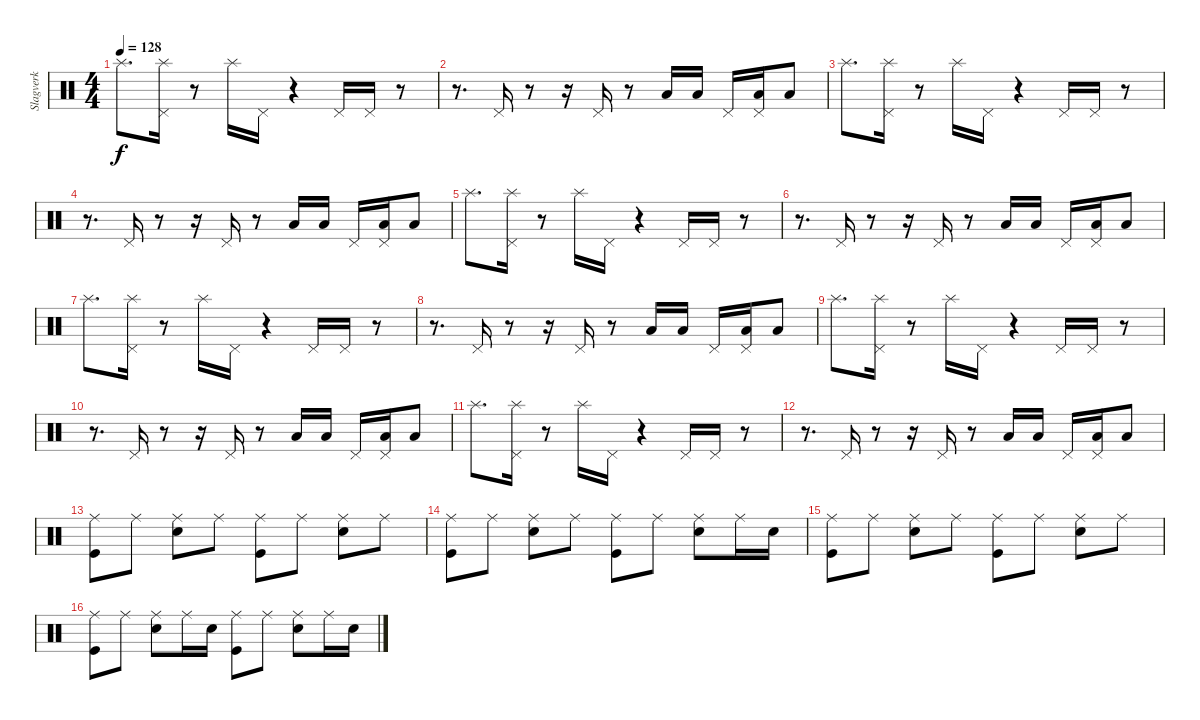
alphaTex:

\track ("Slagverk" "Slagverk") {instrument percussion}
\staff {score}
\articulation defaults
\ts (4 4)
\tempo 128
\clef neutral
\ks c "Splash (hit)".8{d dy f}
("Pedal Hi-Hat (hit)" "Splash (hit)").16 r.8 "Splash (hit)".16 "Pedal Hi-Hat (hit)".16 r.4 "Pedal Hi-Hat (hit)".16 "Pedal Hi-Hat (hit)".16 r.8 |
r.8{d} "Pedal Hi-Hat (hit)".16 r.8 r.16 "Pedal Hi-Hat (hit)".16 r.8 "Low Floor Tom (hit)".16 "Low Floor Tom (hit)".16 "Pedal Hi-Hat (hit)".16 ("Low Floor Tom (hit)" "Pedal Hi-Hat (hit)").16 "Low Floor Tom (hit)".8 |
"Splash (hit)".8{d} ("Pedal Hi-Hat (hit)" "Splash (hit)").16 r.8 "Splash (hit)".16 "Pedal Hi-Hat (hit)".16 r.4 "Pedal Hi-Hat (hit)".16 "Pedal Hi-Hat (hit)".16 r.8 |
r.8{d} "Pedal Hi-Hat (hit)".16 r.8 r.16 "Pedal Hi-Hat (hit)".16 r.8 "Low Floor Tom (hit)".16 "Low Floor Tom (hit)".16 "Pedal Hi-Hat (hit)".16 ("Low Floor Tom (hit)" "Pedal Hi-Hat (hit)").16 "Low Floor Tom (hit)".8 |
"Splash (hit)".8{d} ("Pedal Hi-Hat (hit)" "Splash (hit)").16 r.8 "Splash (hit)".16 "Pedal Hi-Hat (hit)".16 r.4 "Pedal Hi-Hat (hit)".16 "Pedal Hi-Hat (hit)".16 r.8 |
r.8{d} "Pedal Hi-Hat (hit)".16 r.8 r.16 "Pedal Hi-Hat (hit)".16 r.8 "Low Floor Tom (hit)".16 "Low Floor Tom (hit)".16 "Pedal Hi-Hat (hit)".16 ("Low Floor Tom (hit)" "Pedal Hi-Hat (hit)").16 "Low Floor Tom (hit)".8 |
"Splash (hit)".8{d} ("Pedal Hi-Hat (hit)" "Splash (hit)").16 r.8 "Splash (hit)".16 "Pedal Hi-Hat (hit)".16 r.4 "Pedal Hi-Hat (hit)".16 "Pedal Hi-Hat (hit)".16 r.8 |
r.8{d} "Pedal Hi-Hat (hit)".16 r.8 r.16 "Pedal Hi-Hat (hit)".16 r.8 "Low Floor Tom (hit)".16 "Low Floor Tom (hit)".16 "Pedal Hi-Hat (hit)".16 ("Low Floor Tom (hit)" "Pedal Hi-Hat (hit)").16 "Low Floor Tom (hit)".8 |
"Splash (hit)".8{d} ("Pedal Hi-Hat (hit)" "Splash (hit)").16 r.8 "Splash (hit)".16 "Pedal Hi-Hat (hit)".16 r.4 "Pedal Hi-Hat (hit)".16 "Pedal Hi-Hat (hit)".16 r.8 |
r.8{d} "Pedal Hi-Hat (hit)".16 r.8 r.16 "Pedal Hi-Hat (hit)".16 r.8 "Low Floor Tom (hit)".16 "Low Floor Tom (hit)".16 "Pedal Hi-Hat (hit)".16 ("Low Floor Tom (hit)" "Pedal Hi-Hat (hit)").16 "Low Floor Tom (hit)".8 |
"Splash (hit)".8{d} ("Pedal Hi-Hat (hit)" "Splash (hit)").16 r.8 "Splash (hit)".16 "Pedal Hi-Hat (hit)".16 r.4 "Pedal Hi-Hat (hit)".16 "Pedal Hi-Hat (hit)".16 r.8 |
r.8{d} "Pedal Hi-Hat (hit)".16 r.8 r.16 "Pedal Hi-Hat (hit)".16 r.8 "Low Floor Tom (hit)".16 "Low Floor Tom (hit)".16 "Pedal Hi-Hat (hit)".16 ("Low Floor Tom (hit)" "Pedal Hi-Hat (hit)").16 "Low Floor Tom (hit)".8 |
("Kick (hit)" "Ride (middle)").8 "Ride (middle)".8 ("Snare (hit) 2" "Ride (middle)").8 "Ride (middle)".8 ("Kick (hit)" "Ride (middle)").8 "Ride (middle)".8 ("Snare (hit) 2" "Ride (middle)").8 "Ride (middle)".8 |
("Kick (hit)" "Ride (middle)").8 "Ride (middle)".8 ("Snare (hit) 2" "Ride (middle)").8 "Ride (middle)".8 ("Kick (hit)" "Ride (middle)").8 "Ride (middle)".8 ("Snare (hit) 2" "Ride (middle)").8 "Ride (middle)".16 "Snare (hit) 2".16 |
("Kick (hit)" "Ride (middle)").8 "Ride (middle)".8 ("Snare (hit) 2" "Ride (middle)").8 "Ride (middle)".8 ("Kick (hit)" "Ride (middle)").8 "Ride (middle)".8 ("Snare (hit) 2" "Ride (middle)").8 "Ride (middle)".8 |
("Kick (hit)" "Ride (middle)").8 "Ride (middle)".8 ("Snare (hit) 2" "Ride (middle)").8 "Ride (middle)".16 "Snare (hit) 2".16 ("Kick (hit)" "Ride (middle)").8 "Ride (middle)".8 ("Snare (hit) 2" "Ride (middle)").8 "Ride (middle)".16 "Snare (hit) 2".16
